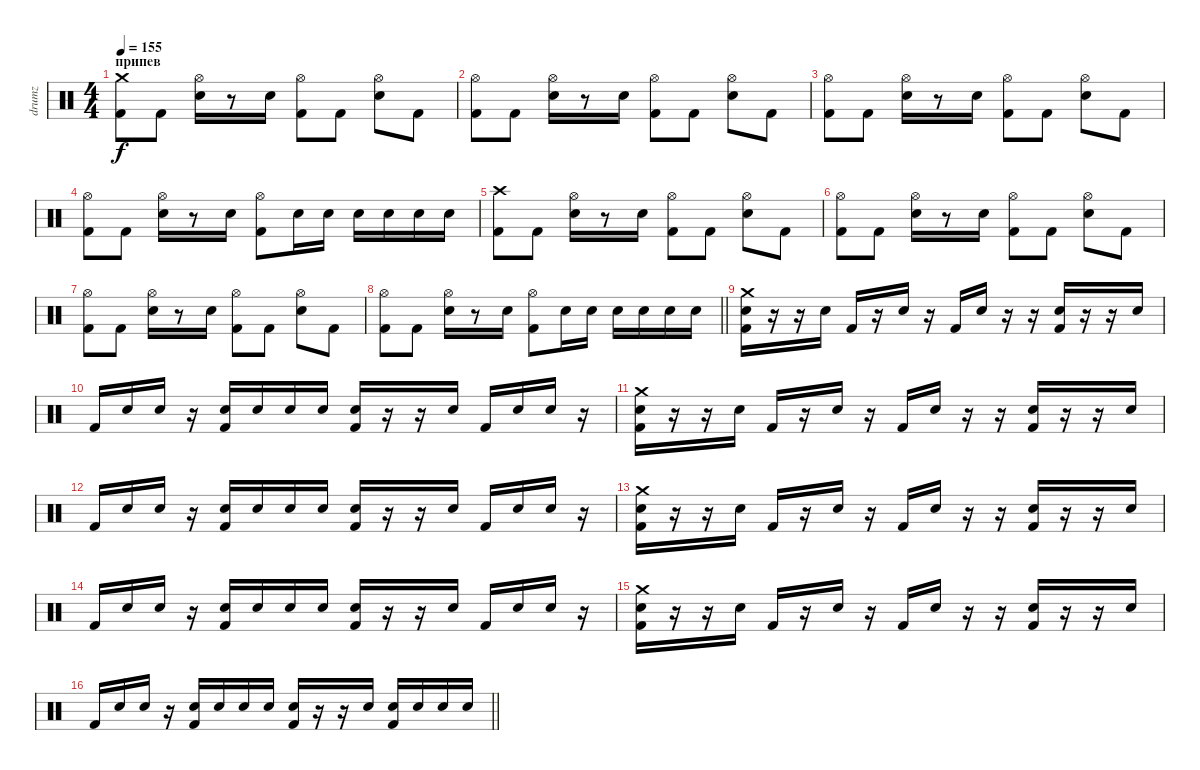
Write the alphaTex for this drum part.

\track ("drumz" "drumz") {instrument percussion}
\staff {score}
\articulation defaults
\ts (4 4)
\section ("" "припев")
\tempo 155
\clef neutral
\ks c
("Crash medium (hit)" "Kick (hit) 2").8{dy f} "Kick (hit) 2".8 ("Hi-Hat (open)" "Electric Snare (hit)").16 r.8 "Electric Snare (hit)".16 ("Hi-Hat (open)" "Kick (hit) 2").8 "Kick (hit) 2".8 ("Hi-Hat (open)" "Electric Snare (hit)").8 "Kick (hit) 2".8 |
("Hi-Hat (open)" "Kick (hit) 2").8 "Kick (hit) 2".8 ("Hi-Hat (open)" "Electric Snare (hit)").16 r.8 "Electric Snare (hit)".16 ("Hi-Hat (open)" "Kick (hit) 2").8 "Kick (hit) 2".8 ("Hi-Hat (open)" "Electric Snare (hit)").8 "Kick (hit) 2".8 |
("Hi-Hat (open)" "Kick (hit) 2").8 "Kick (hit) 2".8 ("Hi-Hat (open)" "Electric Snare (hit)").16 r.8 "Electric Snare (hit)".16 ("Hi-Hat (open)" "Kick (hit) 2").8 "Kick (hit) 2".8 ("Hi-Hat (open)" "Electric Snare (hit)").8 "Kick (hit) 2".8 |
("Hi-Hat (open)" "Kick (hit) 2").8 "Kick (hit) 2".8 ("Hi-Hat (open)" "Electric Snare (hit)").16 r.8 "Electric Snare (hit)".16 ("Hi-Hat (open)" "Kick (hit) 2").8 "Electric Snare (hit)".16 "Electric Snare (hit)".16 "Electric Snare (hit)".16 "Electric Snare (hit)".16 "Electric Snare (hit)".16 "Electric Snare (hit)".16 |
("Crash high (hit)" "Kick (hit) 2").8 "Kick (hit) 2".8 ("Hi-Hat (open)" "Electric Snare (hit)").16 r.8 "Electric Snare (hit)".16 ("Hi-Hat (open)" "Kick (hit) 2").8 "Kick (hit) 2".8 ("Hi-Hat (open)" "Electric Snare (hit)").8 "Kick (hit) 2".8 |
("Hi-Hat (open)" "Kick (hit) 2").8 "Kick (hit) 2".8 ("Hi-Hat (open)" "Electric Snare (hit)").16 r.8 "Electric Snare (hit)".16 ("Hi-Hat (open)" "Kick (hit) 2").8 "Kick (hit) 2".8 ("Hi-Hat (open)" "Electric Snare (hit)").8 "Kick (hit) 2".8 |
("Hi-Hat (open)" "Kick (hit) 2").8 "Kick (hit) 2".8 ("Hi-Hat (open)" "Electric Snare (hit)").16 r.8 "Electric Snare (hit)".16 ("Hi-Hat (open)" "Kick (hit) 2").8 "Kick (hit) 2".8 ("Hi-Hat (open)" "Electric Snare (hit)").8 "Kick (hit) 2".8 |
\barLineRight lightlight
("Hi-Hat (open)" "Kick (hit) 2").8 "Kick (hit) 2".8 ("Hi-Hat (open)" "Electric Snare (hit)").16 r.8 "Electric Snare (hit)".16 ("Hi-Hat (open)" "Kick (hit) 2").8 "Electric Snare (hit)".16 "Electric Snare (hit)".16 "Electric Snare (hit)".16 "Electric Snare (hit)".16 "Electric Snare (hit)".16 "Electric Snare (hit)".16 |
\section ("" "")
("Crash medium (hit)" "Electric Snare (hit)" "Kick (hit) 2").16 r.16 r.16 "Electric Snare (hit)".16 "Kick (hit) 2".16 r.16 "Electric Snare (hit)".16 r.16 "Kick (hit) 2".16 "Electric Snare (hit)".16 r.16 r.16 ("Electric Snare (hit)" "Kick (hit) 2").16 r.16 r.16 "Electric Snare (hit)".16 |
"Kick (hit) 2".16 "Electric Snare (hit)".16 "Electric Snare (hit)".16 r.16 ("Electric Snare (hit)" "Kick (hit) 2").16 "Electric Snare (hit)".16 "Electric Snare (hit)".16 "Electric Snare (hit)".16 ("Electric Snare (hit)" "Kick (hit) 2").16 r.16 r.16 "Electric Snare (hit)".16 "Kick (hit) 2".16 "Electric Snare (hit)".16 "Electric Snare (hit)".16 r.16 |
("Crash medium (hit)" "Electric Snare (hit)" "Kick (hit) 2").16 r.16 r.16 "Electric Snare (hit)".16 "Kick (hit) 2".16 r.16 "Electric Snare (hit)".16 r.16 "Kick (hit) 2".16 "Electric Snare (hit)".16 r.16 r.16 ("Electric Snare (hit)" "Kick (hit) 2").16 r.16 r.16 "Electric Snare (hit)".16 |
"Kick (hit) 2".16 "Electric Snare (hit)".16 "Electric Snare (hit)".16 r.16 ("Electric Snare (hit)" "Kick (hit) 2").16 "Electric Snare (hit)".16 "Electric Snare (hit)".16 "Electric Snare (hit)".16 ("Electric Snare (hit)" "Kick (hit) 2").16 r.16 r.16 "Electric Snare (hit)".16 "Kick (hit) 2".16 "Electric Snare (hit)".16 "Electric Snare (hit)".16 r.16 |
("Crash medium (hit)" "Electric Snare (hit)" "Kick (hit) 2").16 r.16 r.16 "Electric Snare (hit)".16 "Kick (hit) 2".16 r.16 "Electric Snare (hit)".16 r.16 "Kick (hit) 2".16 "Electric Snare (hit)".16 r.16 r.16 ("Electric Snare (hit)" "Kick (hit) 2").16 r.16 r.16 "Electric Snare (hit)".16 |
"Kick (hit) 2".16 "Electric Snare (hit)".16 "Electric Snare (hit)".16 r.16 ("Electric Snare (hit)" "Kick (hit) 2").16 "Electric Snare (hit)".16 "Electric Snare (hit)".16 "Electric Snare (hit)".16 ("Electric Snare (hit)" "Kick (hit) 2").16 r.16 r.16 "Electric Snare (hit)".16 "Kick (hit) 2".16 "Electric Snare (hit)".16 "Electric Snare (hit)".16 r.16 |
("Crash medium (hit)" "Electric Snare (hit)" "Kick (hit) 2").16 r.16 r.16 "Electric Snare (hit)".16 "Kick (hit) 2".16 r.16 "Electric Snare (hit)".16 r.16 "Kick (hit) 2".16 "Electric Snare (hit)".16 r.16 r.16 ("Electric Snare (hit)" "Kick (hit) 2").16 r.16 r.16 "Electric Snare (hit)".16 |
\barLineRight lightlight "Kick (hit) 2".16 "Electric Snare (hit)".16 "Electric Snare (hit)".16
r.16 ("Electric Snare (hit)" "Kick (hit) 2").16 "Electric Snare (hit)".16 "Electric Snare (hit)".16 "Electric Snare (hit)".16 ("Electric Snare (hit)" "Kick (hit) 2").16 r.16 r.16 "Electric Snare (hit)".16 ("Electric Snare (hit)" "Kick (hit) 2").16 "Electric Snare (hit)".16 "Electric Snare (hit)".16 "Electric Snare (hit)".16
